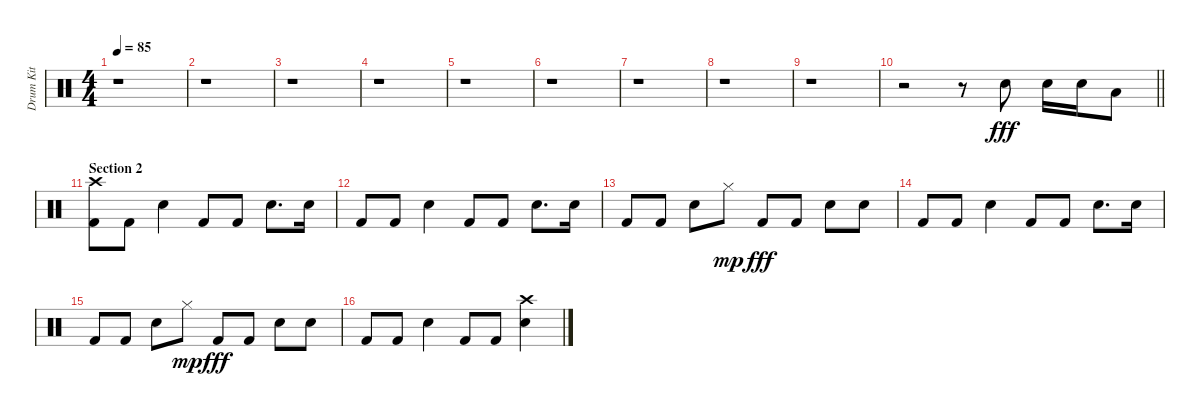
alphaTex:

\track ("Drum Kit" "Drum Kit") {instrument percussion}
\staff {score}
\articulation defaults
\ts (4 4)
\tempo 85
\clef neutral
\ks c
r.1{dy fff} |
r.1 |
r.1 |
r.1 |
r.1 |
r.1 |
r.1 |
r.1 |
r.1 |
\barLineRight lightlight
r.2 r.8 "Snare (hit) 2".8 "Snare (hit) 2".16 "Snare (hit) 2".16 "Low Tom (hit)".8 |
\section ("" "Section 2")
("Crash high (hit)" "Kick (hit) 2").8 "Kick (hit) 2".8 "Snare (hit) 2".4 "Kick (hit) 2".8 "Kick (hit) 2".8 "Snare (hit) 2".8{d} "Snare (hit) 2".16 |
"Kick (hit) 2".8 "Kick (hit) 2".8 "Snare (hit) 2".4 "Kick (hit) 2".8 "Kick (hit) 2".8 "Snare (hit) 2".8{d} "Snare (hit) 2".16 |
"Kick (hit) 2".8 "Kick (hit) 2".8 "Snare (hit) 2".8 "Hi-Hat (closed)".8{dy mp} "Kick (hit) 2".8{dy fff} "Kick (hit) 2".8 "Snare (hit) 2".8 "Snare (hit) 2".8 |
"Kick (hit) 2".8 "Kick (hit) 2".8 "Snare (hit) 2".4 "Kick (hit) 2".8 "Kick (hit) 2".8 "Snare (hit) 2".8{d} "Snare (hit) 2".16 |
"Kick (hit) 2".8 "Kick (hit) 2".8 "Snare (hit) 2".8 "Hi-Hat (closed)".8{dy mp} "Kick (hit) 2".8{dy fff} "Kick (hit) 2".8 "Snare (hit) 2".8 "Snare (hit) 2".8 |
"Kick (hit) 2".8 "Kick (hit) 2".8 "Snare (hit) 2".4 "Kick (hit) 2".8 "Kick (hit) 2".8 ("Crash high (hit)" "Snare (hit) 2").4
